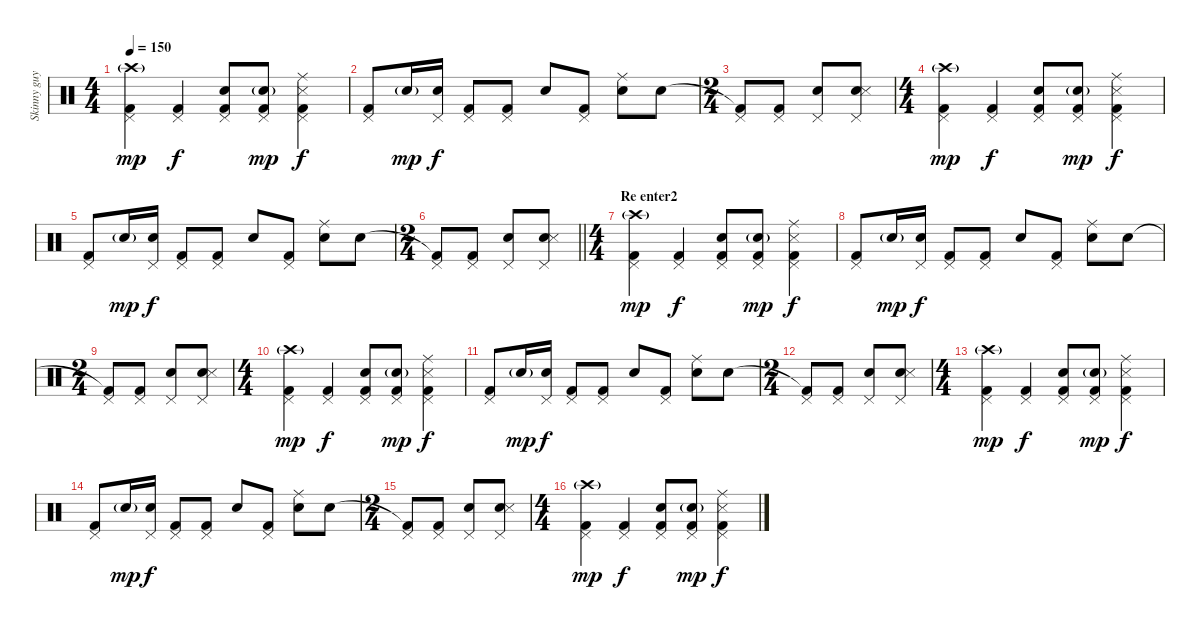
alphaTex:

\track ("Skinny guy" "Skinny guy") {instrument percussion}
\staff {score}
\articulation defaults
\ts (4 4)
\tempo 150
\clef neutral
\ks c
("Kick (hit) 2" "Pedal Hi-Hat (hit)" "Crash high (hit)"{g}).4{dy mp} ("Kick (hit) 2" "Pedal Hi-Hat (hit)").4{dy f} ("Kick (hit) 2" "Pedal Hi-Hat (hit)" "Snare (hit) 2").8 ("Kick (hit) 2" "Pedal Hi-Hat (hit)" "Snare (hit) 2"{g}).8{dy mp} ("Kick (hit) 2" "Pedal Hi-Hat (hit)" "Snare (side stick) 3" "Ride (middle)").4{dy f} |
("Kick (hit) 2" "Pedal Hi-Hat (hit)").8 "Snare (hit) 2"{g}.16{dy mp} ("Pedal Hi-Hat (hit)" "Snare (hit) 2").16{dy f} ("Kick (hit) 2" "Pedal Hi-Hat (hit)").8 ("Kick (hit) 2" "Pedal Hi-Hat (hit)").8 "Snare (hit) 2".8 ("Kick (hit) 2" "Pedal Hi-Hat (hit)").8 ("Snare (hit) 2" "Ride (middle)").8 "Snare (hit) 2".8 |
\ts (2 4)
("Kick (hit) 2"{t} "Pedal Hi-Hat (hit)").8 ("Kick (hit) 2" "Pedal Hi-Hat (hit)").8 ("Pedal Hi-Hat (hit)" "Snare (hit) 2").8 ("Pedal Hi-Hat (hit)" "Snare (hit) 2" "Snare (side stick) 3").8 |
\ts (4 4)
("Kick (hit) 2" "Pedal Hi-Hat (hit)" "Crash high (hit)"{g}).4{dy mp} ("Kick (hit) 2" "Pedal Hi-Hat (hit)").4{dy f} ("Kick (hit) 2" "Pedal Hi-Hat (hit)" "Snare (hit) 2").8 ("Kick (hit) 2" "Pedal Hi-Hat (hit)" "Snare (hit) 2"{g}).8{dy mp} ("Kick (hit) 2" "Pedal Hi-Hat (hit)" "Snare (side stick) 3" "Ride (middle)").4{dy f} |
("Kick (hit) 2" "Pedal Hi-Hat (hit)").8 "Snare (hit) 2"{g}.16{dy mp} ("Pedal Hi-Hat (hit)" "Snare (hit) 2").16{dy f} ("Kick (hit) 2" "Pedal Hi-Hat (hit)").8 ("Kick (hit) 2" "Pedal Hi-Hat (hit)").8 "Snare (hit) 2".8 ("Kick (hit) 2" "Pedal Hi-Hat (hit)").8 ("Snare (hit) 2" "Ride (middle)").8 "Snare (hit) 2".8 |
\ts (2 4)
\barLineRight lightlight
("Kick (hit) 2"{t} "Pedal Hi-Hat (hit)").8 ("Kick (hit) 2" "Pedal Hi-Hat (hit)").8 ("Pedal Hi-Hat (hit)" "Snare (hit) 2").8 ("Pedal Hi-Hat (hit)" "Snare (hit) 2" "Snare (side stick) 3").8 |
\ts (4 4)
\section ("" "Re enter2")
("Kick (hit) 2" "Pedal Hi-Hat (hit)" "Crash high (hit)"{g}).4{dy mp} ("Kick (hit) 2" "Pedal Hi-Hat (hit)").4{dy f} ("Kick (hit) 2" "Pedal Hi-Hat (hit)" "Snare (hit) 2").8 ("Kick (hit) 2" "Pedal Hi-Hat (hit)" "Snare (hit) 2"{g}).8{dy mp} ("Kick (hit) 2" "Pedal Hi-Hat (hit)" "Snare (side stick) 3" "Ride (middle)").4{dy f} |
("Kick (hit) 2" "Pedal Hi-Hat (hit)").8 "Snare (hit) 2"{g}.16{dy mp} ("Pedal Hi-Hat (hit)" "Snare (hit) 2").16{dy f} ("Kick (hit) 2" "Pedal Hi-Hat (hit)").8 ("Kick (hit) 2" "Pedal Hi-Hat (hit)").8 "Snare (hit) 2".8 ("Kick (hit) 2" "Pedal Hi-Hat (hit)").8 ("Snare (hit) 2" "Ride (middle)").8 "Snare (hit) 2".8 |
\ts (2 4)
("Kick (hit) 2"{t} "Pedal Hi-Hat (hit)").8 ("Kick (hit) 2" "Pedal Hi-Hat (hit)").8 ("Pedal Hi-Hat (hit)" "Snare (hit) 2").8 ("Pedal Hi-Hat (hit)" "Snare (hit) 2" "Snare (side stick) 3").8 |
\ts (4 4)
("Kick (hit) 2" "Pedal Hi-Hat (hit)" "Crash high (hit)"{g}).4{dy mp} ("Kick (hit) 2" "Pedal Hi-Hat (hit)").4{dy f} ("Kick (hit) 2" "Pedal Hi-Hat (hit)" "Snare (hit) 2").8 ("Kick (hit) 2" "Pedal Hi-Hat (hit)" "Snare (hit) 2"{g}).8{dy mp} ("Kick (hit) 2" "Pedal Hi-Hat (hit)" "Snare (side stick) 3" "Ride (middle)").4{dy f} |
("Kick (hit) 2" "Pedal Hi-Hat (hit)").8 "Snare (hit) 2"{g}.16{dy mp} ("Pedal Hi-Hat (hit)" "Snare (hit) 2").16{dy f} ("Kick (hit) 2" "Pedal Hi-Hat (hit)").8 ("Kick (hit) 2" "Pedal Hi-Hat (hit)").8 "Snare (hit) 2".8 ("Kick (hit) 2" "Pedal Hi-Hat (hit)").8 ("Snare (hit) 2" "Ride (middle)").8 "Snare (hit) 2".8 |
\ts (2 4)
("Kick (hit) 2"{t} "Pedal Hi-Hat (hit)").8 ("Kick (hit) 2" "Pedal Hi-Hat (hit)").8 ("Pedal Hi-Hat (hit)" "Snare (hit) 2").8 ("Pedal Hi-Hat (hit)" "Snare (hit) 2" "Snare (side stick) 3").8 |
\ts (4 4)
("Kick (hit) 2" "Pedal Hi-Hat (hit)" "Crash high (hit)"{g}).4{dy mp} ("Kick (hit) 2" "Pedal Hi-Hat (hit)").4{dy f} ("Kick (hit) 2" "Pedal Hi-Hat (hit)" "Snare (hit) 2").8 ("Kick (hit) 2" "Pedal Hi-Hat (hit)" "Snare (hit) 2"{g}).8{dy mp} ("Kick (hit) 2" "Pedal Hi-Hat (hit)" "Snare (side stick) 3" "Ride (middle)").4{dy f} |
("Kick (hit) 2" "Pedal Hi-Hat (hit)").8 "Snare (hit) 2"{g}.16{dy mp} ("Pedal Hi-Hat (hit)" "Snare (hit) 2").16{dy f} ("Kick (hit) 2" "Pedal Hi-Hat (hit)").8 ("Kick (hit) 2" "Pedal Hi-Hat (hit)").8 "Snare (hit) 2".8 ("Kick (hit) 2" "Pedal Hi-Hat (hit)").8 ("Snare (hit) 2" "Ride (middle)").8 "Snare (hit) 2".8 |
\ts (2 4)
("Kick (hit) 2"{t} "Pedal Hi-Hat (hit)").8 ("Kick (hit) 2" "Pedal Hi-Hat (hit)").8 ("Pedal Hi-Hat (hit)" "Snare (hit) 2").8 ("Pedal Hi-Hat (hit)" "Snare (hit) 2" "Snare (side stick) 3").8 |
\ts (4 4)
("Kick (hit) 2" "Pedal Hi-Hat (hit)" "Crash high (hit)"{g}).4{dy mp} ("Kick (hit) 2" "Pedal Hi-Hat (hit)").4{dy f} ("Kick (hit) 2" "Pedal Hi-Hat (hit)" "Snare (hit) 2").8 ("Kick (hit) 2" "Pedal Hi-Hat (hit)" "Snare (hit) 2"{g}).8{dy mp} ("Kick (hit) 2" "Pedal Hi-Hat (hit)" "Snare (side stick) 3" "Ride (middle)").4{dy f}
